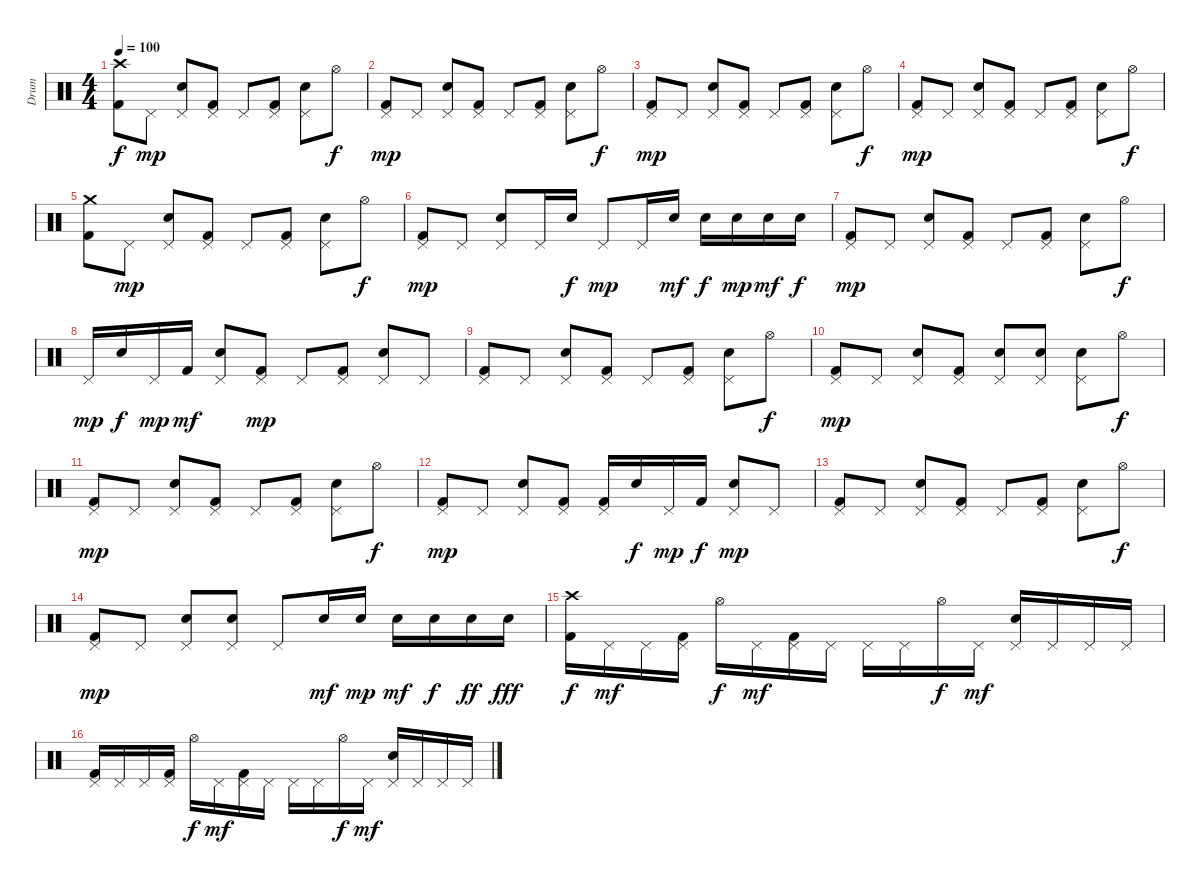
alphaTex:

\track ("Drum" "Drum") {instrument percussion}
\staff {score}
\articulation defaults
\ts (4 4)
\tempo 100
\clef neutral
\ks c
("Crash high (hit)" "Kick (hit) 2").8{dy f} "Pedal Hi-Hat (hit)".8{dy mp} ("Pedal Hi-Hat (hit)" "Electric Snare (hit)").8 ("Pedal Hi-Hat (hit)" "Kick (hit) 2").8 "Pedal Hi-Hat (hit)".8 ("Pedal Hi-Hat (hit)" "Kick (hit) 2").8 ("Pedal Hi-Hat (hit)" "Electric Snare (hit)").8 "Hi-Hat (open)".8{dy f} |
("Pedal Hi-Hat (hit)" "Kick (hit) 2").8{dy mp} "Pedal Hi-Hat (hit)".8 ("Pedal Hi-Hat (hit)" "Electric Snare (hit)").8 ("Pedal Hi-Hat (hit)" "Kick (hit) 2").8 "Pedal Hi-Hat (hit)".8 ("Pedal Hi-Hat (hit)" "Kick (hit) 2").8 ("Pedal Hi-Hat (hit)" "Electric Snare (hit)").8 "Hi-Hat (open)".8{dy f} |
("Pedal Hi-Hat (hit)" "Kick (hit) 2").8{dy mp} "Pedal Hi-Hat (hit)".8 ("Pedal Hi-Hat (hit)" "Electric Snare (hit)").8 ("Pedal Hi-Hat (hit)" "Kick (hit) 2").8 "Pedal Hi-Hat (hit)".8 ("Pedal Hi-Hat (hit)" "Kick (hit) 2").8 ("Pedal Hi-Hat (hit)" "Electric Snare (hit)").8 "Hi-Hat (open)".8{dy f} |
("Pedal Hi-Hat (hit)" "Kick (hit) 2").8{dy mp} "Pedal Hi-Hat (hit)".8 ("Pedal Hi-Hat (hit)" "Electric Snare (hit)").8 ("Pedal Hi-Hat (hit)" "Kick (hit) 2").8 "Pedal Hi-Hat (hit)".8 ("Pedal Hi-Hat (hit)" "Kick (hit) 2").8 ("Pedal Hi-Hat (hit)" "Electric Snare (hit)").8 "Hi-Hat (open)".8{dy f} |
("Crash medium (hit)" "Kick (hit) 2").8 "Pedal Hi-Hat (hit)".8{dy mp} ("Pedal Hi-Hat (hit)" "Electric Snare (hit)").8 ("Pedal Hi-Hat (hit)" "Kick (hit) 2").8 "Pedal Hi-Hat (hit)".8 ("Pedal Hi-Hat (hit)" "Kick (hit) 2").8 ("Pedal Hi-Hat (hit)" "Electric Snare (hit)").8 "Hi-Hat (open)".8{dy f} |
("Pedal Hi-Hat (hit)" "Kick (hit) 2").8{dy mp} "Pedal Hi-Hat (hit)".8 ("Pedal Hi-Hat (hit)" "Electric Snare (hit)").8 "Pedal Hi-Hat (hit)".16 "Electric Snare (hit)".16{dy f} "Pedal Hi-Hat (hit)".8{dy mp} "Pedal Hi-Hat (hit)".16 "Electric Snare (hit)".16{dy mf} "Electric Snare (hit)".16{dy f} "Electric Snare (hit)".16{dy mp} "Electric Snare (hit)".16{dy mf} "Electric Snare (hit)".16{dy f} |
("Pedal Hi-Hat (hit)" "Kick (hit) 2").8{dy mp} "Pedal Hi-Hat (hit)".8 ("Pedal Hi-Hat (hit)" "Electric Snare (hit)").8 ("Pedal Hi-Hat (hit)" "Kick (hit) 2").8 "Pedal Hi-Hat (hit)".8 ("Pedal Hi-Hat (hit)" "Kick (hit) 2").8 ("Pedal Hi-Hat (hit)" "Electric Snare (hit)").8 "Hi-Hat (open)".8{dy f} |
"Pedal Hi-Hat (hit)".16{dy mp} "Electric Snare (hit)".16{dy f} "Pedal Hi-Hat (hit)".16{dy mp} "Kick (hit) 2".16{dy mf} ("Pedal Hi-Hat (hit)" "Electric Snare (hit)").8 ("Pedal Hi-Hat (hit)" "Kick (hit) 2").8{dy mp} "Pedal Hi-Hat (hit)".8 ("Pedal Hi-Hat (hit)" "Kick (hit) 2").8 ("Pedal Hi-Hat (hit)" "Electric Snare (hit)").8 "Pedal Hi-Hat (hit)".8 |
("Pedal Hi-Hat (hit)" "Kick (hit) 2").8 "Pedal Hi-Hat (hit)".8 ("Pedal Hi-Hat (hit)" "Electric Snare (hit)").8 ("Pedal Hi-Hat (hit)" "Kick (hit) 2").8 "Pedal Hi-Hat (hit)".8 ("Pedal Hi-Hat (hit)" "Kick (hit) 2").8 ("Pedal Hi-Hat (hit)" "Electric Snare (hit)").8 "Hi-Hat (open)".8{dy f} |
("Pedal Hi-Hat (hit)" "Kick (hit) 2").8{dy mp} "Pedal Hi-Hat (hit)".8 ("Pedal Hi-Hat (hit)" "Electric Snare (hit)").8 ("Pedal Hi-Hat (hit)" "Kick (hit) 2").8 ("Pedal Hi-Hat (hit)" "Electric Snare (hit)").8 ("Pedal Hi-Hat (hit)" "Electric Snare (hit)").8 ("Pedal Hi-Hat (hit)" "Electric Snare (hit)").8 "Hi-Hat (open)".8{dy f} |
("Pedal Hi-Hat (hit)" "Kick (hit) 2").8{dy mp} "Pedal Hi-Hat (hit)".8 ("Pedal Hi-Hat (hit)" "Electric Snare (hit)").8 ("Pedal Hi-Hat (hit)" "Kick (hit) 2").8 "Pedal Hi-Hat (hit)".8 ("Pedal Hi-Hat (hit)" "Kick (hit) 2").8 ("Pedal Hi-Hat (hit)" "Electric Snare (hit)").8 "Hi-Hat (open)".8{dy f} |
("Pedal Hi-Hat (hit)" "Kick (hit) 2").8{dy mp} "Pedal Hi-Hat (hit)".8 ("Pedal Hi-Hat (hit)" "Electric Snare (hit)").8 ("Pedal Hi-Hat (hit)" "Kick (hit) 2").8 ("Pedal Hi-Hat (hit)" "Kick (hit) 2").16 "Electric Snare (hit)".16{dy f} "Pedal Hi-Hat (hit)".16{dy mp} "Kick (hit) 2".16{dy f} ("Pedal Hi-Hat (hit)" "Electric Snare (hit)").8{dy mp} "Pedal Hi-Hat (hit)".8 |
("Pedal Hi-Hat (hit)" "Kick (hit) 2").8 "Pedal Hi-Hat (hit)".8 ("Pedal Hi-Hat (hit)" "Electric Snare (hit)").8 ("Pedal Hi-Hat (hit)" "Kick (hit) 2").8 "Pedal Hi-Hat (hit)".8 ("Pedal Hi-Hat (hit)" "Kick (hit) 2").8 ("Pedal Hi-Hat (hit)" "Electric Snare (hit)").8 "Hi-Hat (open)".8{dy f} |
("Pedal Hi-Hat (hit)" "Kick (hit) 2").8{dy mp} "Pedal Hi-Hat (hit)".8 ("Pedal Hi-Hat (hit)" "Electric Snare (hit)").8 ("Pedal Hi-Hat (hit)" "Electric Snare (hit)").8 "Pedal Hi-Hat (hit)".8 "Electric Snare (hit)".16{dy mf} "Electric Snare (hit)".16{dy mp} "Electric Snare (hit)".16{dy mf} "Electric Snare (hit)".16{dy f} "Electric Snare (hit)".16{dy ff} "Electric Snare (hit)".16{dy fff} |
("Crash high (hit)" "Kick (hit) 2").16{dy f} "Pedal Hi-Hat (hit)".16{dy mf} "Pedal Hi-Hat (hit)".16 ("Pedal Hi-Hat (hit)" "Kick (hit) 2").16 "Hi-Hat (open)".16{dy f} "Pedal Hi-Hat (hit)".16{dy mf} ("Pedal Hi-Hat (hit)" "Kick (hit) 2").16 "Pedal Hi-Hat (hit)".16 "Pedal Hi-Hat (hit)".16 "Pedal Hi-Hat (hit)".16 "Hi-Hat (open)".16{dy f} "Pedal Hi-Hat (hit)".16{dy mf} ("Pedal Hi-Hat (hit)" "Electric Snare (hit)").16 "Pedal Hi-Hat (hit)".16 "Pedal Hi-Hat (hit)".16 "Pedal Hi-Hat (hit)".16 |
("Pedal Hi-Hat (hit)" "Kick (hit) 2").16 "Pedal Hi-Hat (hit)".16 "Pedal Hi-Hat (hit)".16 ("Pedal Hi-Hat (hit)" "Kick (hit) 2").16 "Hi-Hat (open)".16{dy f} "Pedal Hi-Hat (hit)".16{dy mf} ("Pedal Hi-Hat (hit)" "Kick (hit) 2").16 "Pedal Hi-Hat (hit)".16 "Pedal Hi-Hat (hit)".16 "Pedal Hi-Hat (hit)".16 "Hi-Hat (open)".16{dy f} "Pedal Hi-Hat (hit)".16{dy mf} ("Pedal Hi-Hat (hit)" "Electric Snare (hit)").16 "Pedal Hi-Hat (hit)".16 "Pedal Hi-Hat (hit)".16 "Pedal Hi-Hat (hit)".16
